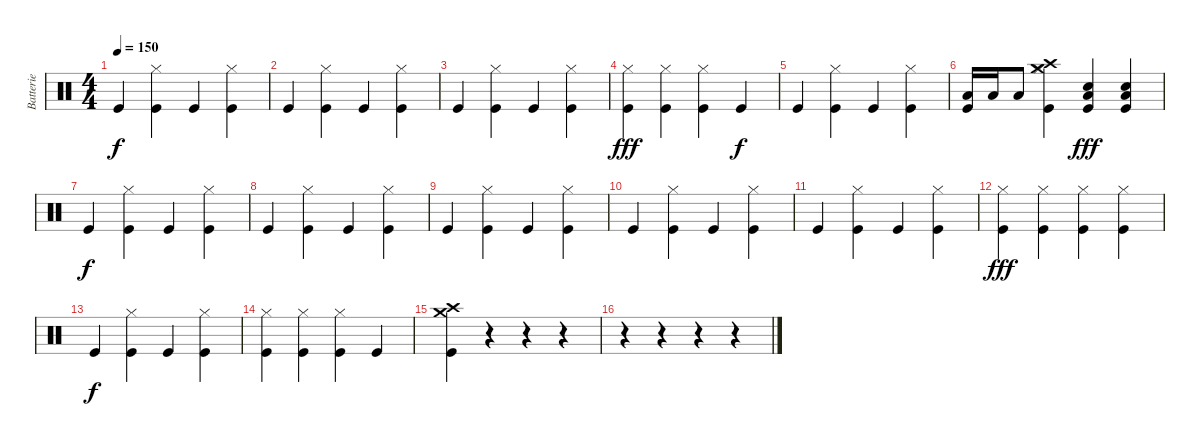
\track ("Batterie" "Batterie") {instrument percussion}
\staff {score}
\articulation defaults
\ts (4 4)
\tempo 150
\clef neutral
\ks c "Kick (hit)".4{dy f}
("Hi-Hat (closed)" "Kick (hit)").4 "Kick (hit)".4 ("Hi-Hat (closed)" "Kick (hit)").4 |
"Kick (hit)".4 ("Hi-Hat (closed)" "Kick (hit)").4 "Kick (hit)".4 ("Hi-Hat (closed)" "Kick (hit)").4 |
"Kick (hit)".4 ("Hi-Hat (closed)" "Kick (hit)").4 "Kick (hit)".4 ("Hi-Hat (closed)" "Kick (hit)").4 |
("Hi-Hat (closed)" "Kick (hit)").4{dy fff} ("Hi-Hat (closed)" "Kick (hit)").4 ("Hi-Hat (closed)" "Kick (hit)").4 "Kick (hit)".4{dy f} |
"Kick (hit)".4 ("Hi-Hat (closed)" "Kick (hit)").4 "Kick (hit)".4 ("Hi-Hat (closed)" "Kick (hit)").4 |
("Low Tom (hit)" "Kick (hit)").16 "Low Tom (hit)".16 "Low Tom (hit)".8 ("Crash high (hit)" "Crash medium (hit)" "Hi-Hat (closed)" "Kick (hit)").4 ("Snare (hit) 2" "Low Tom (hit)" "Kick (hit)").4{dy fff} ("Snare (hit) 2" "Low Tom (hit)" "Kick (hit)").4 |
"Kick (hit)".4{dy f} ("Hi-Hat (closed)" "Kick (hit)").4 "Kick (hit)".4 ("Hi-Hat (closed)" "Kick (hit)").4 |
"Kick (hit)".4 ("Hi-Hat (closed)" "Kick (hit)").4 "Kick (hit)".4 ("Hi-Hat (closed)" "Kick (hit)").4 |
"Kick (hit)".4 ("Hi-Hat (closed)" "Kick (hit)").4 "Kick (hit)".4 ("Hi-Hat (closed)" "Kick (hit)").4 |
"Kick (hit)".4 ("Hi-Hat (closed)" "Kick (hit)").4 "Kick (hit)".4 ("Hi-Hat (closed)" "Kick (hit)").4 |
"Kick (hit)".4 ("Hi-Hat (closed)" "Kick (hit)").4 "Kick (hit)".4 ("Hi-Hat (closed)" "Kick (hit)").4 |
("Hi-Hat (closed)" "Kick (hit)").4{dy fff} ("Hi-Hat (closed)" "Kick (hit)").4 ("Hi-Hat (closed)" "Kick (hit)").4 ("Hi-Hat (closed)" "Kick (hit)").4 |
"Kick (hit)".4{dy f} ("Hi-Hat (closed)" "Kick (hit)").4 "Kick (hit)".4 ("Hi-Hat (closed)" "Kick (hit)").4 |
("Hi-Hat (closed)" "Kick (hit)").4 ("Hi-Hat (closed)" "Kick (hit)").4 ("Hi-Hat (closed)" "Kick (hit)").4 "Kick (hit)".4 |
("Crash high (hit)" "Crash medium (hit)" "Kick (hit)").4 r.4 r.4 r.4 |
r.4 r.4 r.4 r.4
